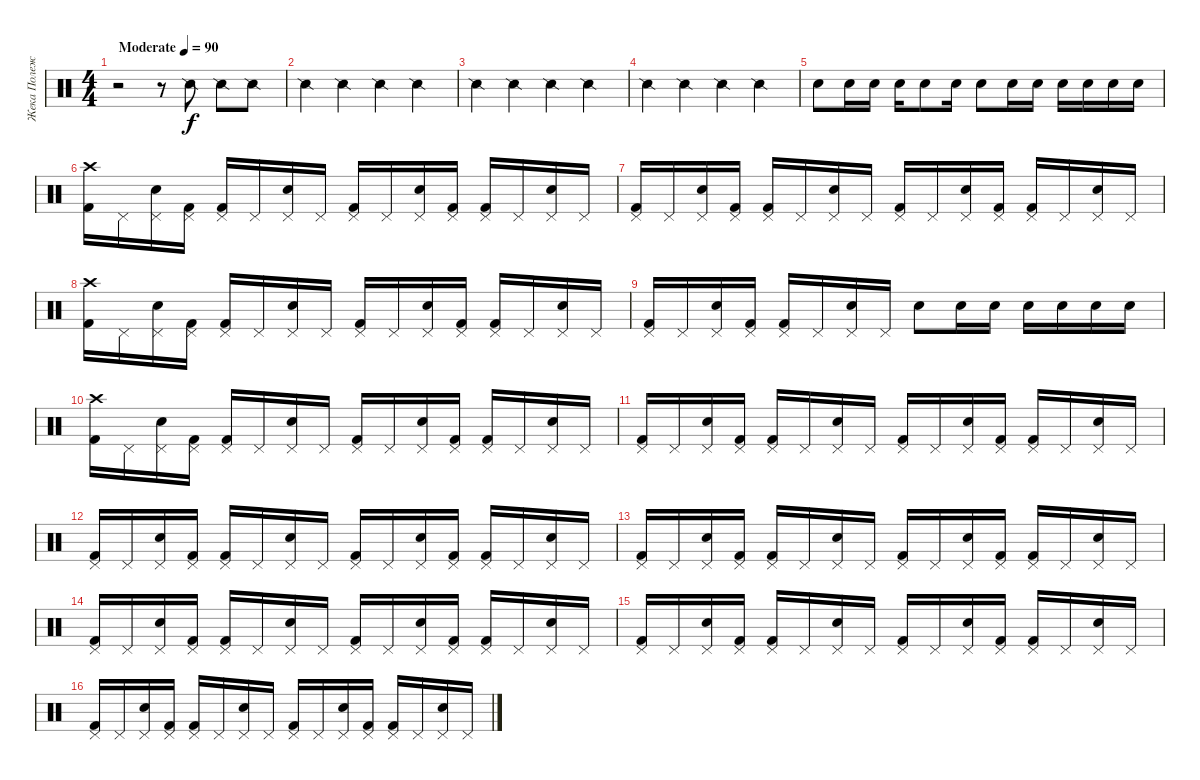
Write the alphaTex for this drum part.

\track ("Жека Полежаев" "Жека Полеж") {instrument percussion}
\staff {score}
\articulation defaults
\ts (4 4)
\tempo (90 "Moderate")
\clef neutral
\ks c
r.2{dy f} r.8 "Snare (side stick) 2".8 "Snare (side stick) 2".8 "Snare (side stick) 2".8 |
"Snare (side stick) 2".4 "Snare (side stick) 2".4 "Snare (side stick) 2".4 "Snare (side stick) 2".4 |
"Snare (side stick) 2".4 "Snare (side stick) 2".4 "Snare (side stick) 2".4 "Snare (side stick) 2".4 |
"Snare (side stick) 2".4 "Snare (side stick) 2".4 "Snare (side stick) 2".4 "Snare (side stick) 2".4 |
"Snare (hit) 2".8 "Snare (hit) 2".16 "Snare (hit) 2".16 "Snare (hit) 2".16 "Snare (hit) 2".8 "Snare (hit) 2".16 "Snare (hit) 2".8 "Snare (hit) 2".16 "Snare (hit) 2".16 "Snare (hit) 2".16 "Snare (hit) 2".16 "Snare (hit) 2".16 "Snare (hit) 2".16 |
("Crash high (hit)" "Kick (hit) 2").16 "Pedal Hi-Hat (hit)".16 ("Pedal Hi-Hat (hit)" "Snare (hit) 2").16 ("Pedal Hi-Hat (hit)" "Kick (hit) 2").16 ("Pedal Hi-Hat (hit)" "Kick (hit) 2").16 "Pedal Hi-Hat (hit)".16 ("Pedal Hi-Hat (hit)" "Snare (hit) 2").16 "Pedal Hi-Hat (hit)".16 ("Pedal Hi-Hat (hit)" "Kick (hit) 2").16 "Pedal Hi-Hat (hit)".16 ("Pedal Hi-Hat (hit)" "Snare (hit) 2").16 ("Pedal Hi-Hat (hit)" "Kick (hit) 2").16 ("Pedal Hi-Hat (hit)" "Kick (hit) 2").16 "Pedal Hi-Hat (hit)".16 ("Pedal Hi-Hat (hit)" "Snare (hit) 2").16 "Pedal Hi-Hat (hit)".16 |
("Pedal Hi-Hat (hit)" "Kick (hit) 2").16 "Pedal Hi-Hat (hit)".16 ("Pedal Hi-Hat (hit)" "Snare (hit) 2").16 ("Pedal Hi-Hat (hit)" "Kick (hit) 2").16 ("Pedal Hi-Hat (hit)" "Kick (hit) 2").16 "Pedal Hi-Hat (hit)".16 ("Pedal Hi-Hat (hit)" "Snare (hit) 2").16 "Pedal Hi-Hat (hit)".16 ("Pedal Hi-Hat (hit)" "Kick (hit) 2").16 "Pedal Hi-Hat (hit)".16 ("Pedal Hi-Hat (hit)" "Snare (hit) 2").16 ("Pedal Hi-Hat (hit)" "Kick (hit) 2").16 ("Pedal Hi-Hat (hit)" "Kick (hit) 2").16 "Pedal Hi-Hat (hit)".16 ("Pedal Hi-Hat (hit)" "Snare (hit) 2").16 "Pedal Hi-Hat (hit)".16 |
("Crash high (hit)" "Kick (hit) 2").16 "Pedal Hi-Hat (hit)".16 ("Pedal Hi-Hat (hit)" "Snare (hit) 2").16 ("Pedal Hi-Hat (hit)" "Kick (hit) 2").16 ("Pedal Hi-Hat (hit)" "Kick (hit) 2").16 "Pedal Hi-Hat (hit)".16 ("Pedal Hi-Hat (hit)" "Snare (hit) 2").16 "Pedal Hi-Hat (hit)".16 ("Pedal Hi-Hat (hit)" "Kick (hit) 2").16 "Pedal Hi-Hat (hit)".16 ("Pedal Hi-Hat (hit)" "Snare (hit) 2").16 ("Pedal Hi-Hat (hit)" "Kick (hit) 2").16 ("Pedal Hi-Hat (hit)" "Kick (hit) 2").16 "Pedal Hi-Hat (hit)".16 ("Pedal Hi-Hat (hit)" "Snare (hit) 2").16 "Pedal Hi-Hat (hit)".16 |
("Pedal Hi-Hat (hit)" "Kick (hit) 2").16 "Pedal Hi-Hat (hit)".16 ("Pedal Hi-Hat (hit)" "Snare (hit) 2").16 ("Pedal Hi-Hat (hit)" "Kick (hit) 2").16 ("Pedal Hi-Hat (hit)" "Kick (hit) 2").16 "Pedal Hi-Hat (hit)".16 ("Pedal Hi-Hat (hit)" "Snare (hit) 2").16 "Pedal Hi-Hat (hit)".16 "Snare (hit) 2".8 "Snare (hit) 2".16 "Snare (hit) 2".16 "Snare (hit) 2".16 "Snare (hit) 2".16 "Snare (hit) 2".16 "Snare (hit) 2".16 |
("Crash high (hit)" "Kick (hit) 2").16 "Pedal Hi-Hat (hit)".16 ("Pedal Hi-Hat (hit)" "Snare (hit) 2").16 ("Pedal Hi-Hat (hit)" "Kick (hit) 2").16 ("Pedal Hi-Hat (hit)" "Kick (hit) 2").16 "Pedal Hi-Hat (hit)".16 ("Pedal Hi-Hat (hit)" "Snare (hit) 2").16 "Pedal Hi-Hat (hit)".16 ("Pedal Hi-Hat (hit)" "Kick (hit) 2").16 "Pedal Hi-Hat (hit)".16 ("Pedal Hi-Hat (hit)" "Snare (hit) 2").16 ("Pedal Hi-Hat (hit)" "Kick (hit) 2").16 ("Pedal Hi-Hat (hit)" "Kick (hit) 2").16 "Pedal Hi-Hat (hit)".16 ("Pedal Hi-Hat (hit)" "Snare (hit) 2").16 "Pedal Hi-Hat (hit)".16 |
("Pedal Hi-Hat (hit)" "Kick (hit) 2").16 "Pedal Hi-Hat (hit)".16 ("Pedal Hi-Hat (hit)" "Snare (hit) 2").16 ("Pedal Hi-Hat (hit)" "Kick (hit) 2").16 ("Pedal Hi-Hat (hit)" "Kick (hit) 2").16 "Pedal Hi-Hat (hit)".16 ("Pedal Hi-Hat (hit)" "Snare (hit) 2").16 "Pedal Hi-Hat (hit)".16 ("Pedal Hi-Hat (hit)" "Kick (hit) 2").16 "Pedal Hi-Hat (hit)".16 ("Pedal Hi-Hat (hit)" "Snare (hit) 2").16 ("Pedal Hi-Hat (hit)" "Kick (hit) 2").16 ("Pedal Hi-Hat (hit)" "Kick (hit) 2").16 "Pedal Hi-Hat (hit)".16 ("Pedal Hi-Hat (hit)" "Snare (hit) 2").16 "Pedal Hi-Hat (hit)".16 |
("Pedal Hi-Hat (hit)" "Kick (hit) 2").16 "Pedal Hi-Hat (hit)".16 ("Pedal Hi-Hat (hit)" "Snare (hit) 2").16 ("Pedal Hi-Hat (hit)" "Kick (hit) 2").16 ("Pedal Hi-Hat (hit)" "Kick (hit) 2").16 "Pedal Hi-Hat (hit)".16 ("Pedal Hi-Hat (hit)" "Snare (hit) 2").16 "Pedal Hi-Hat (hit)".16 ("Pedal Hi-Hat (hit)" "Kick (hit) 2").16 "Pedal Hi-Hat (hit)".16 ("Pedal Hi-Hat (hit)" "Snare (hit) 2").16 ("Pedal Hi-Hat (hit)" "Kick (hit) 2").16 ("Pedal Hi-Hat (hit)" "Kick (hit) 2").16 "Pedal Hi-Hat (hit)".16 ("Pedal Hi-Hat (hit)" "Snare (hit) 2").16 "Pedal Hi-Hat (hit)".16 |
("Pedal Hi-Hat (hit)" "Kick (hit) 2").16 "Pedal Hi-Hat (hit)".16 ("Pedal Hi-Hat (hit)" "Snare (hit) 2").16 ("Pedal Hi-Hat (hit)" "Kick (hit) 2").16 ("Pedal Hi-Hat (hit)" "Kick (hit) 2").16 "Pedal Hi-Hat (hit)".16 ("Pedal Hi-Hat (hit)" "Snare (hit) 2").16 "Pedal Hi-Hat (hit)".16 ("Pedal Hi-Hat (hit)" "Kick (hit) 2").16 "Pedal Hi-Hat (hit)".16 ("Pedal Hi-Hat (hit)" "Snare (hit) 2").16 ("Pedal Hi-Hat (hit)" "Kick (hit) 2").16 ("Pedal Hi-Hat (hit)" "Kick (hit) 2").16 "Pedal Hi-Hat (hit)".16 ("Pedal Hi-Hat (hit)" "Snare (hit) 2").16 "Pedal Hi-Hat (hit)".16 |
("Pedal Hi-Hat (hit)" "Kick (hit) 2").16 "Pedal Hi-Hat (hit)".16 ("Pedal Hi-Hat (hit)" "Snare (hit) 2").16 ("Pedal Hi-Hat (hit)" "Kick (hit) 2").16 ("Pedal Hi-Hat (hit)" "Kick (hit) 2").16 "Pedal Hi-Hat (hit)".16 ("Pedal Hi-Hat (hit)" "Snare (hit) 2").16 "Pedal Hi-Hat (hit)".16 ("Pedal Hi-Hat (hit)" "Kick (hit) 2").16 "Pedal Hi-Hat (hit)".16 ("Pedal Hi-Hat (hit)" "Snare (hit) 2").16 ("Pedal Hi-Hat (hit)" "Kick (hit) 2").16 ("Pedal Hi-Hat (hit)" "Kick (hit) 2").16 "Pedal Hi-Hat (hit)".16 ("Pedal Hi-Hat (hit)" "Snare (hit) 2").16 "Pedal Hi-Hat (hit)".16 |
("Pedal Hi-Hat (hit)" "Kick (hit) 2").16 "Pedal Hi-Hat (hit)".16 ("Pedal Hi-Hat (hit)" "Snare (hit) 2").16 ("Pedal Hi-Hat (hit)" "Kick (hit) 2").16 ("Pedal Hi-Hat (hit)" "Kick (hit) 2").16 "Pedal Hi-Hat (hit)".16 ("Pedal Hi-Hat (hit)" "Snare (hit) 2").16 "Pedal Hi-Hat (hit)".16 ("Pedal Hi-Hat (hit)" "Kick (hit) 2").16 "Pedal Hi-Hat (hit)".16 ("Pedal Hi-Hat (hit)" "Snare (hit) 2").16 ("Pedal Hi-Hat (hit)" "Kick (hit) 2").16 ("Pedal Hi-Hat (hit)" "Kick (hit) 2").16 "Pedal Hi-Hat (hit)".16 ("Pedal Hi-Hat (hit)" "Snare (hit) 2").16 "Pedal Hi-Hat (hit)".16 |
("Pedal Hi-Hat (hit)" "Kick (hit) 2").16 "Pedal Hi-Hat (hit)".16 ("Pedal Hi-Hat (hit)" "Snare (hit) 2").16 ("Pedal Hi-Hat (hit)" "Kick (hit) 2").16 ("Pedal Hi-Hat (hit)" "Kick (hit) 2").16 "Pedal Hi-Hat (hit)".16 ("Pedal Hi-Hat (hit)" "Snare (hit) 2").16 "Pedal Hi-Hat (hit)".16 ("Pedal Hi-Hat (hit)" "Kick (hit) 2").16 "Pedal Hi-Hat (hit)".16 ("Pedal Hi-Hat (hit)" "Snare (hit) 2").16 ("Pedal Hi-Hat (hit)" "Kick (hit) 2").16 ("Pedal Hi-Hat (hit)" "Kick (hit) 2").16 "Pedal Hi-Hat (hit)".16 ("Pedal Hi-Hat (hit)" "Snare (hit) 2").16 "Pedal Hi-Hat (hit)".16
